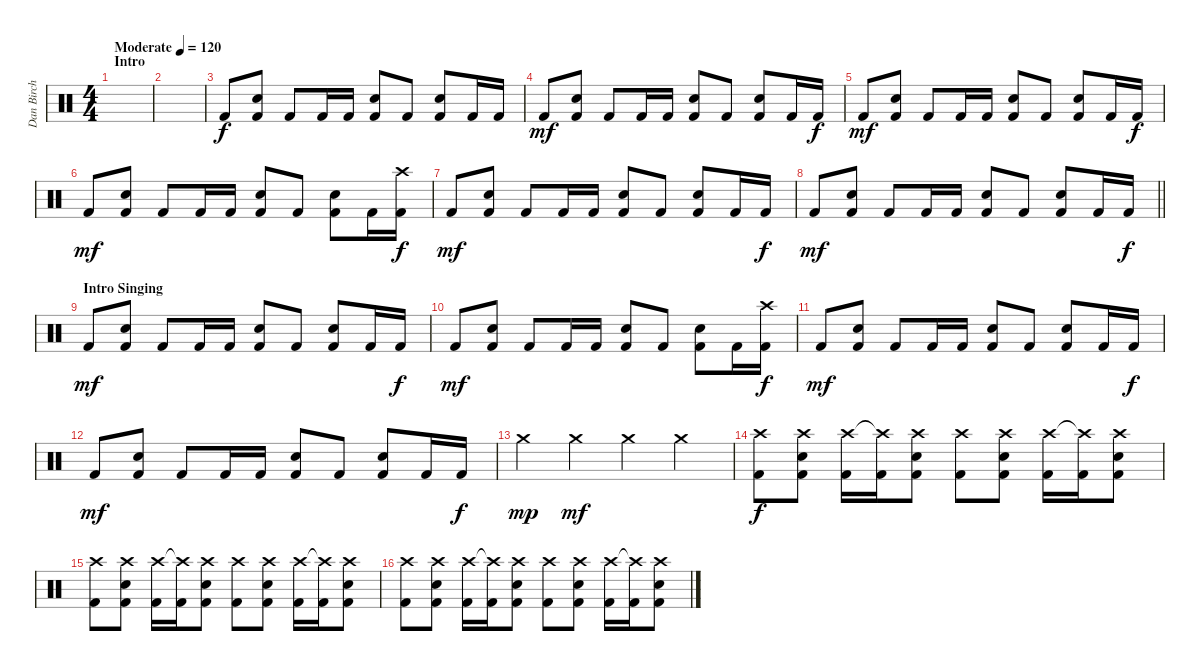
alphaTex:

\track ("Dan Birch" "Dan Birch") {instrument percussion}
\staff {score}
\articulation defaults
\ts (4 4)
\section ("" "Intro")
\tempo (120 "Moderate")
\clef neutral
\ks c
|
|
"Kick (hit) 2".8 ("Snare (hit) 2" "Kick (hit) 2").8 "Kick (hit) 2".8 "Kick (hit) 2".16 "Kick (hit) 2".16 ("Snare (hit) 2" "Kick (hit) 2").8 "Kick (hit) 2".8 ("Snare (hit) 2" "Kick (hit) 2").8 "Kick (hit) 2".16 "Kick (hit) 2".16{dy f} |
"Kick (hit) 2".8{dy mf} ("Snare (hit) 2" "Kick (hit) 2").8 "Kick (hit) 2".8 "Kick (hit) 2".16 "Kick (hit) 2".16 ("Snare (hit) 2" "Kick (hit) 2").8 "Kick (hit) 2".8 ("Snare (hit) 2" "Kick (hit) 2").8 "Kick (hit) 2".16 "Kick (hit) 2".16{dy f} |
"Kick (hit) 2".8{dy mf} ("Snare (hit) 2" "Kick (hit) 2").8 "Kick (hit) 2".8 "Kick (hit) 2".16 "Kick (hit) 2".16 ("Snare (hit) 2" "Kick (hit) 2").8 "Kick (hit) 2".8 ("Snare (hit) 2" "Kick (hit) 2").8 "Kick (hit) 2".16 "Kick (hit) 2".16{dy f} |
"Kick (hit) 2".8{dy mf} ("Snare (hit) 2" "Kick (hit) 2").8 "Kick (hit) 2".8 "Kick (hit) 2".16 "Kick (hit) 2".16 ("Snare (hit) 2" "Kick (hit) 2").8 "Kick (hit) 2".8 ("Snare (hit) 2" "Kick (hit) 2").8 "Kick (hit) 2".16 ("Crash high (hit)" "Kick (hit) 2").16{dy f} |
"Kick (hit) 2".8{dy mf} ("Snare (hit) 2" "Kick (hit) 2").8 "Kick (hit) 2".8 "Kick (hit) 2".16 "Kick (hit) 2".16 ("Snare (hit) 2" "Kick (hit) 2").8 "Kick (hit) 2".8 ("Snare (hit) 2" "Kick (hit) 2").8 "Kick (hit) 2".16 "Kick (hit) 2".16{dy f} |
\barLineRight lightlight "Kick (hit) 2".8{dy mf}
("Snare (hit) 2" "Kick (hit) 2").8 "Kick (hit) 2".8 "Kick (hit) 2".16 "Kick (hit) 2".16 ("Snare (hit) 2" "Kick (hit) 2").8 "Kick (hit) 2".8 ("Snare (hit) 2" "Kick (hit) 2").8 "Kick (hit) 2".16 "Kick (hit) 2".16{dy f} |
\section ("" "Intro Singing")
"Kick (hit) 2".8{dy mf} ("Snare (hit) 2" "Kick (hit) 2").8 "Kick (hit) 2".8 "Kick (hit) 2".16 "Kick (hit) 2".16 ("Snare (hit) 2" "Kick (hit) 2").8 "Kick (hit) 2".8 ("Snare (hit) 2" "Kick (hit) 2").8 "Kick (hit) 2".16 "Kick (hit) 2".16{dy f} |
"Kick (hit) 2".8{dy mf} ("Snare (hit) 2" "Kick (hit) 2").8 "Kick (hit) 2".8 "Kick (hit) 2".16 "Kick (hit) 2".16 ("Snare (hit) 2" "Kick (hit) 2").8 "Kick (hit) 2".8 ("Snare (hit) 2" "Kick (hit) 2").8 "Kick (hit) 2".16 ("Crash high (hit)" "Kick (hit) 2").16{dy f} |
"Kick (hit) 2".8{dy mf} ("Snare (hit) 2" "Kick (hit) 2").8 "Kick (hit) 2".8 "Kick (hit) 2".16 "Kick (hit) 2".16 ("Snare (hit) 2" "Kick (hit) 2").8 "Kick (hit) 2".8 ("Snare (hit) 2" "Kick (hit) 2").8 "Kick (hit) 2".16 "Kick (hit) 2".16{dy f} |
"Kick (hit) 2".8{dy mf} ("Snare (hit) 2" "Kick (hit) 2").8 "Kick (hit) 2".8 "Kick (hit) 2".16 "Kick (hit) 2".16 ("Snare (hit) 2" "Kick (hit) 2").8 "Kick (hit) 2".8 ("Snare (hit) 2" "Kick (hit) 2").8 "Kick (hit) 2".16 "Kick (hit) 2".16{dy f} |
"Crash medium (hit)".4{dy mp} "Crash medium (hit)".4{dy mf} "Crash medium (hit)".4 "Crash medium (hit)".4 |
("Crash high (hit)" "Kick (hit) 2").8{dy f} ("Crash high (hit)" "Snare (hit) 2" "Kick (hit) 2").8 ("Crash high (hit)" "Kick (hit) 2").16 ("Crash high (hit)"{t} "Kick (hit) 2").16 ("Crash high (hit)" "Snare (hit) 2" "Kick (hit) 2").8 ("Crash high (hit)" "Kick (hit) 2").8 ("Crash high (hit)" "Snare (hit) 2" "Kick (hit) 2").8 ("Crash high (hit)" "Kick (hit) 2").16 ("Crash high (hit)"{t} "Kick (hit) 2").16 ("Crash high (hit)" "Snare (hit) 2" "Kick (hit) 2").8 |
("Crash high (hit)" "Kick (hit) 2").8 ("Crash high (hit)" "Snare (hit) 2" "Kick (hit) 2").8 ("Crash high (hit)" "Kick (hit) 2").16 ("Crash high (hit)"{t} "Kick (hit) 2").16 ("Crash high (hit)" "Snare (hit) 2" "Kick (hit) 2").8 ("Crash high (hit)" "Kick (hit) 2").8 ("Crash high (hit)" "Snare (hit) 2" "Kick (hit) 2").8 ("Crash high (hit)" "Kick (hit) 2").16 ("Crash high (hit)"{t} "Kick (hit) 2").16 ("Crash high (hit)" "Snare (hit) 2" "Kick (hit) 2").8 |
("Crash high (hit)" "Kick (hit) 2").8 ("Crash high (hit)" "Snare (hit) 2" "Kick (hit) 2").8 ("Crash high (hit)" "Kick (hit) 2").16 ("Crash high (hit)"{t} "Kick (hit) 2").16 ("Crash high (hit)" "Snare (hit) 2" "Kick (hit) 2").8 ("Crash high (hit)" "Kick (hit) 2").8 ("Crash high (hit)" "Snare (hit) 2" "Kick (hit) 2").8 ("Crash high (hit)" "Kick (hit) 2").16 ("Crash high (hit)"{t} "Kick (hit) 2").16 ("Crash high (hit)" "Snare (hit) 2" "Kick (hit) 2").8
